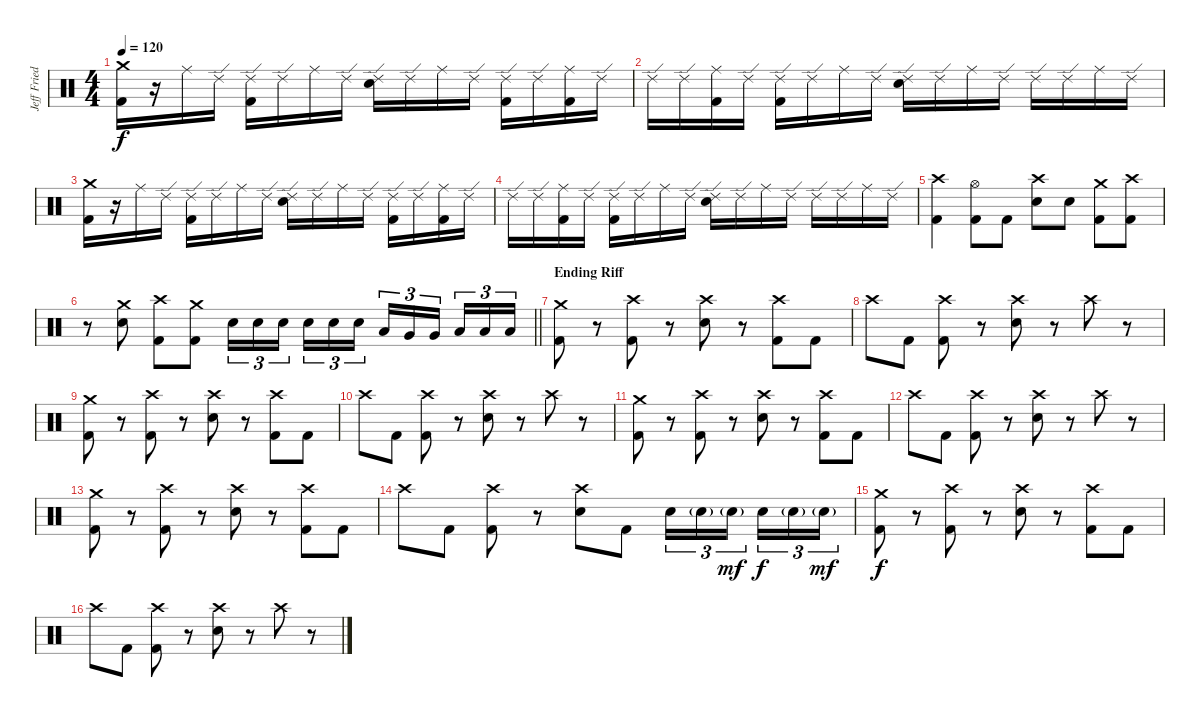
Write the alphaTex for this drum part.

\track ("Jeff Friedl" "Jeff Fried") {instrument percussion}
\staff {score}
\articulation defaults
\ts (4 4)
\tempo 120
\clef neutral
\ks c
("Crash medium (hit)" "Kick (hit) 2").16{dy f} r.16 "Ride (middle)".16 "Ride (edge) 2".16 ("Ride (edge) 2" "Kick (hit) 2").16 "Ride (edge) 2".16 "Ride (middle)".16 "Ride (edge) 2".16 ("Ride (edge) 2" "Snare (hit) 2").16 "Ride (edge) 2".16 "Ride (middle)".16 "Ride (edge) 2".16 ("Ride (edge) 2" "Kick (hit) 2").16 "Ride (edge) 2".16 ("Ride (middle)" "Kick (hit) 2").16 "Ride (edge) 2".16 |
"Ride (edge) 2".16 "Ride (edge) 2".16 ("Ride (middle)" "Kick (hit) 2").16 "Ride (edge) 2".16 ("Ride (edge) 2" "Kick (hit) 2").16 "Ride (edge) 2".16 "Ride (middle)".16 "Ride (edge) 2".16 ("Ride (edge) 2" "Snare (hit) 2").16 "Ride (edge) 2".16 "Ride (middle)".16 "Ride (edge) 2".16 "Ride (edge) 2".16 "Ride (edge) 2".16 "Ride (middle)".16 "Ride (edge) 2".16 |
("Crash medium (hit)" "Kick (hit) 2").16 r.16 "Ride (middle)".16 "Ride (edge) 2".16 ("Ride (edge) 2" "Kick (hit) 2").16 "Ride (edge) 2".16 "Ride (middle)".16 "Ride (edge) 2".16 ("Ride (edge) 2" "Snare (hit) 2").16 "Ride (edge) 2".16 "Ride (middle)".16 "Ride (edge) 2".16 ("Ride (edge) 2" "Kick (hit) 2").16 "Ride (edge) 2".16 ("Ride (middle)" "Kick (hit) 2").16 "Ride (edge) 2".16 |
"Ride (edge) 2".16 "Ride (edge) 2".16 ("Ride (middle)" "Kick (hit) 2").16 "Ride (edge) 2".16 ("Ride (edge) 2" "Kick (hit) 2").16 "Ride (edge) 2".16 "Ride (middle)".16 "Ride (edge) 2".16 ("Ride (edge) 2" "Snare (hit) 2").16 "Ride (edge) 2".16 "Ride (middle)".16 "Ride (edge) 2".16 "Ride (edge) 2".16 "Ride (edge) 2".16 "Ride (middle)".16 "Ride (edge) 2".16 |
("Crash high (hit)" "Kick (hit) 2").4 ("Hi-Hat (open)" "Kick (hit) 2").8 "Kick (hit) 2".8 ("Crash high (hit)" "Snare (hit) 2").8 "Snare (hit) 2".8 ("Crash medium (hit)" "Kick (hit) 2").8 ("Crash high (hit)" "Kick (hit) 2").8 |
\barLineRight lightlight
r.8 ("Crash medium (hit)" "Snare (hit) 2").8 ("Crash high (hit)" "Kick (hit) 2").8 ("Crash medium (hit)" "Kick (hit) 2").8 "Snare (hit) 2".16{tu (3 2)} "Snare (hit) 2".16{tu (3 2)} "Snare (hit) 2".16{tu (3 2) beam splitsecondary} "Snare (hit) 2".16{tu (3 2)} "Snare (hit) 2".16{tu (3 2)} "Snare (hit) 2".16{tu (3 2)} "Low Tom (hit)".16{tu (3 2)} "Very Low Tom (hit)".16{tu (3 2)} "Very Low Tom (hit)".16{tu (3 2) beam splitsecondary} "Low Floor Tom (hit)".16{tu (3 2)} "Low Floor Tom (hit)".16{tu (3 2)} "Low Floor Tom (hit)".16{tu (3 2)} |
\section ("" "Ending Riff")
("Crash medium (hit)" "Kick (hit) 2").8 r.8 ("Crash high (hit)" "Kick (hit) 2").8 r.8 ("Crash high (hit)" "Snare (hit) 2").8 r.8 ("Crash high (hit)" "Kick (hit) 2").8 "Kick (hit) 2".8 |
"Crash high (hit)".8 "Kick (hit) 2".8 ("Crash high (hit)" "Kick (hit) 2").8 r.8 ("Crash high (hit)" "Snare (hit) 2").8 r.8 "Crash high (hit)".8 r.8 |
("Crash medium (hit)" "Kick (hit) 2").8 r.8 ("Crash high (hit)" "Kick (hit) 2").8 r.8 ("Crash high (hit)" "Snare (hit) 2").8 r.8 ("Crash high (hit)" "Kick (hit) 2").8 "Kick (hit) 2".8 |
"Crash high (hit)".8 "Kick (hit) 2".8 ("Crash high (hit)" "Kick (hit) 2").8 r.8 ("Crash high (hit)" "Snare (hit) 2").8 r.8 "Crash high (hit)".8 r.8 |
("Crash medium (hit)" "Kick (hit) 2").8 r.8 ("Crash high (hit)" "Kick (hit) 2").8 r.8 ("Crash high (hit)" "Snare (hit) 2").8 r.8 ("Crash high (hit)" "Kick (hit) 2").8 "Kick (hit) 2".8 |
"Crash high (hit)".8 "Kick (hit) 2".8 ("Crash high (hit)" "Kick (hit) 2").8 r.8 ("Crash high (hit)" "Snare (hit) 2").8 r.8 "Crash high (hit)".8 r.8 |
("Crash medium (hit)" "Kick (hit) 2").8 r.8 ("Crash high (hit)" "Kick (hit) 2").8 r.8 ("Crash high (hit)" "Snare (hit) 2").8 r.8 ("Crash high (hit)" "Kick (hit) 2").8 "Kick (hit) 2".8 |
"Crash high (hit)".8 "Kick (hit) 2".8 ("Crash high (hit)" "Kick (hit) 2").8 r.8 ("Crash high (hit)" "Snare (hit) 2").8 "Kick (hit) 2".8 "Snare (hit) 2".16{tu (3 2)} "Snare (hit) 2"{g}.16{tu (3 2)} "Snare (hit) 2"{g}.16{tu (3 2) dy mf beam splitsecondary} "Snare (hit) 2".16{tu (3 2) dy f} "Snare (hit) 2"{g}.16{tu (3 2)} "Snare (hit) 2"{g}.16{tu (3 2) dy mf} |
("Crash medium (hit)" "Kick (hit) 2").8{dy f} r.8 ("Crash high (hit)" "Kick (hit) 2").8 r.8 ("Crash high (hit)" "Snare (hit) 2").8 r.8 ("Crash high (hit)" "Kick (hit) 2").8 "Kick (hit) 2".8 |
"Crash high (hit)".8 "Kick (hit) 2".8 ("Crash high (hit)" "Kick (hit) 2").8 r.8 ("Crash high (hit)" "Snare (hit) 2").8 r.8 "Crash high (hit)".8 r.8
